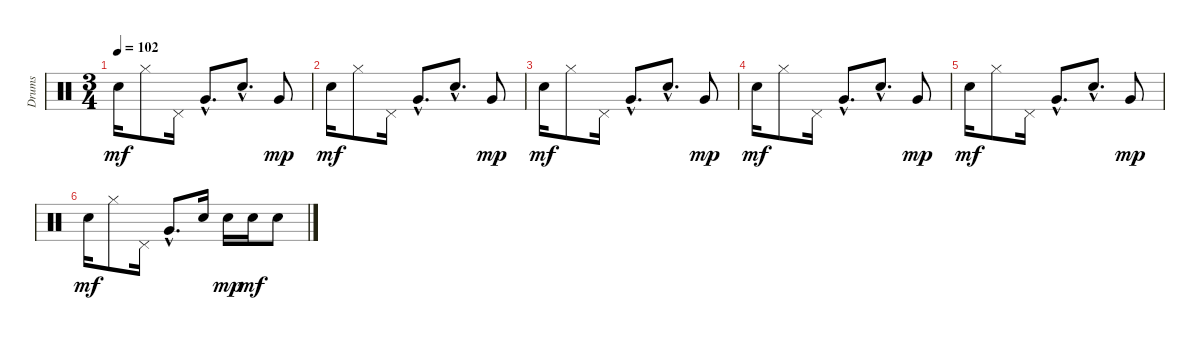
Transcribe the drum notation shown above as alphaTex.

\track ("Drums" "Drums") {instrument percussion}
\staff {score}
\articulation defaults
\ts (3 4)
\tempo 102
\clef neutral
\ks c "Electric Snare (hit)".16{dy mf} "Hi-Hat (closed)".8 "Pedal Hi-Hat (hit)".16 "Very Low Tom (hit)"{hac}.8{d} "Electric Snare (hit)"{hac}.8{d} "Very Low Tom (hit)".8{dy mp}
|
"Electric Snare (hit)".16{dy mf volume 5} "Hi-Hat (closed)".8 "Pedal Hi-Hat (hit)".16 "Very Low Tom (hit)"{hac}.8{d} "Electric Snare (hit)"{hac}.8{d} "Very Low Tom (hit)".8{dy mp} |
"Electric Snare (hit)".16{dy mf} "Hi-Hat (closed)".8 "Pedal Hi-Hat (hit)".16 "Very Low Tom (hit)"{hac}.8{d} "Electric Snare (hit)"{hac}.8{d} "Very Low Tom (hit)".8{dy mp} |
"Electric Snare (hit)".16{dy mf} "Hi-Hat (closed)".8 "Pedal Hi-Hat (hit)".16 "Very Low Tom (hit)"{hac}.8{d} "Electric Snare (hit)"{hac}.8{d} "Very Low Tom (hit)".8{dy mp} |
"Electric Snare (hit)".16{dy mf volume 1} "Hi-Hat (closed)".8 "Pedal Hi-Hat (hit)".16 "Very Low Tom (hit)"{hac}.8{d} "Electric Snare (hit)"{hac}.8{d} "Very Low Tom (hit)".8{dy mp} |
"Electric Snare (hit)".16{dy mf} "Hi-Hat (closed)".8 "Pedal Hi-Hat (hit)".16 "Very Low Tom (hit)"{hac}.8{d} "Electric Snare (hit)".16 "Electric Snare (hit)".16{dy mp} "Electric Snare (hit)".16{dy mf} "Electric Snare (hit)".8
